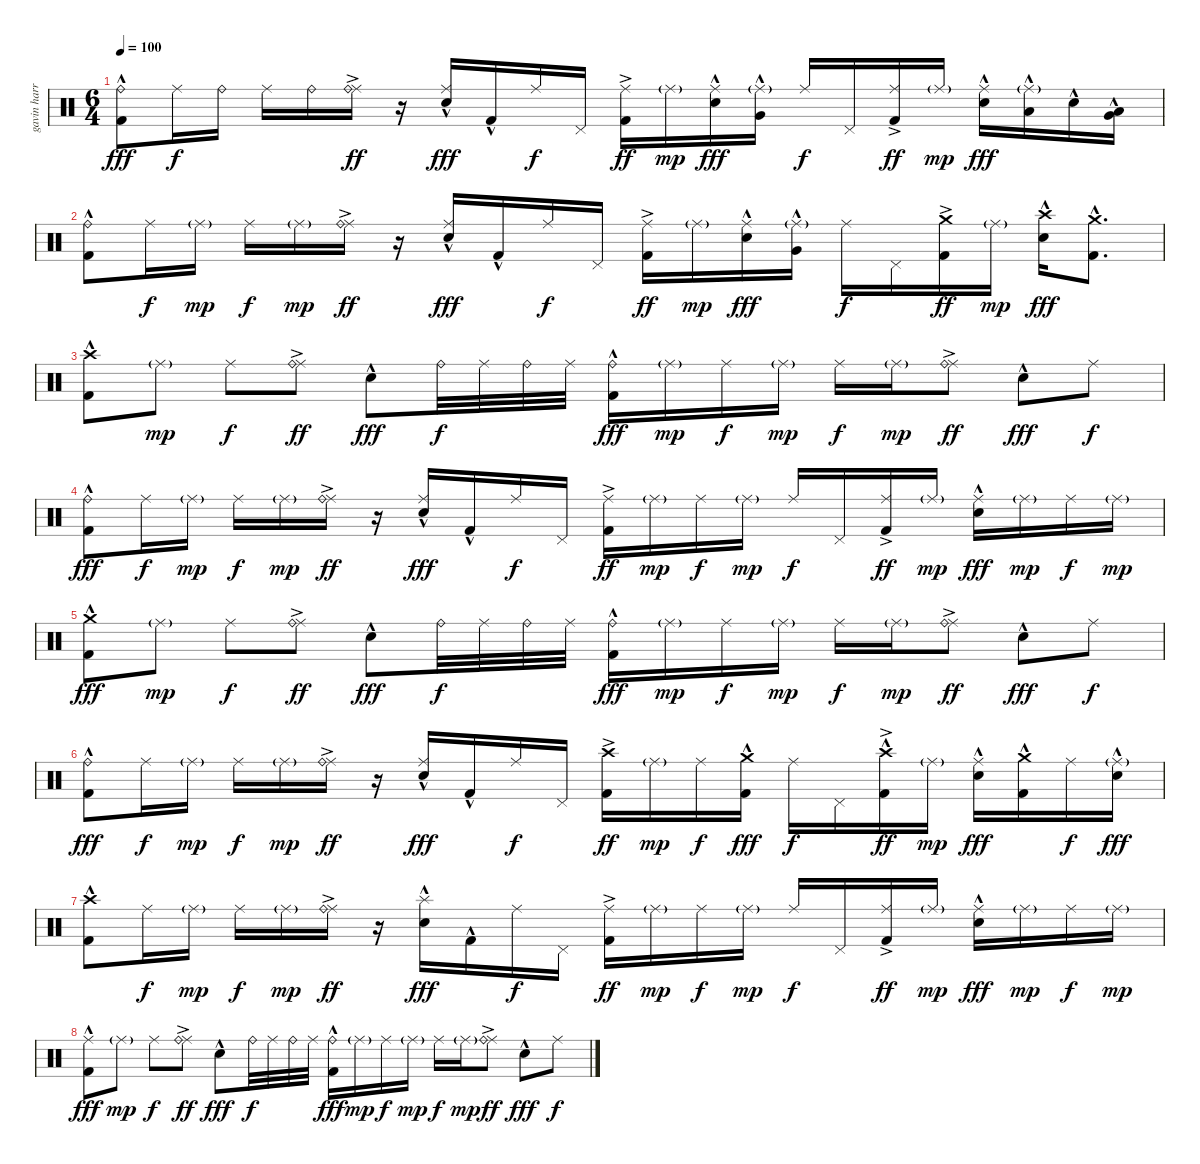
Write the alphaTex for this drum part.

\track ("gavin harrison" "gavin harr") {instrument percussion}
\staff {score}
\articulation defaults
\ts (6 4)
\tempo 100
\clef neutral
\ks c
("Ride (bell)" "Kick (hit) 2"{hac}).8{dy fff} "Ride (middle)".16{dy f} "Ride (bell)".16 "Ride (middle)".16 "Ride (bell)".16 ("Ride (middle)"{ac} "Ride (bell)").16{dy ff} r.16 ("Ride (middle)" "Electric Snare (hit)"{hac}).16{dy fff} "Kick (hit) 2"{hac}.16 "Ride (middle)".16{dy f} "Pedal Hi-Hat (hit)".16 ("Ride (middle)" "Kick (hit) 2"{ac}).16{dy ff} "Ride (middle)"{g}.16{dy mp} ("Ride (middle)" "Electric Snare (hit)"{hac}).16{dy fff} ("Ride (middle)"{g} "Very Low Tom (hit)"{hac}).16 "Ride (middle)".16{dy f} "Pedal Hi-Hat (hit)".16 ("Ride (middle)" "Kick (hit) 2"{ac}).16{dy ff} "Ride (middle)"{g}.16{dy mp} ("Ride (middle)" "Electric Snare (hit)"{hac}).16{dy fff} ("Ride (middle)"{g} "Low Floor Tom (hit)"{hac}).16 "Electric Snare (hit)"{hac}.16 ("Low Floor Tom (hit)" "Very Low Tom (hit)"{hac}).16 |
("Ride (bell)" "Kick (hit) 2"{hac}).8 "Ride (middle)".16{dy f} "Ride (middle)"{g}.16{dy mp} "Ride (middle)".16{dy f} "Ride (middle)"{g}.16{dy mp} ("Ride (middle)"{ac} "Ride (bell)").16{dy ff} r.16 ("Ride (middle)" "Electric Snare (hit)"{hac}).16{dy fff} "Kick (hit) 2"{hac}.16 "Ride (middle)".16{dy f} "Pedal Hi-Hat (hit)".16 ("Ride (middle)" "Kick (hit) 2"{ac}).16{dy ff} "Ride (middle)"{g}.16{dy mp} ("Ride (middle)" "Electric Snare (hit)"{hac}).16{dy fff} ("Ride (middle)"{g} "Very Low Tom (hit)"{hac}).16 "Ride (middle)".16{dy f} "Pedal Hi-Hat (hit)".16 ("Crash medium (hit)" "Kick (hit) 2"{ac}).16{dy ff} "Ride (middle)"{g}.16{dy mp} ("Crash high (hit)" "Electric Snare (hit)"{hac}).16{dy fff} ("Crash medium (hit)" "Kick (hit) 2"{hac}).8{d} |
("Crash high (hit)" "Kick (hit) 2"{hac}).8 "Ride (middle)"{g}.8{dy mp} "Ride (middle)".8{dy f} ("Ride (middle)"{ac} "Ride (bell)").8{dy ff} "Electric Snare (hit)"{hac}.8{dy fff} "Ride (bell)".32{dy f} "Ride (middle)".32 "Ride (bell)".32 "Ride (middle)".32 ("Ride (bell)" "Kick (hit) 2"{hac}).16{dy fff} "Ride (middle)"{g}.16{dy mp} "Ride (middle)".16{dy f} "Ride (middle)"{g}.16{dy mp} "Ride (middle)".16{dy f} "Ride (middle)"{g}.16{dy mp} ("Ride (middle)" "Ride (bell)"{ac}).8{dy ff} "Electric Snare (hit)"{hac}.8{dy fff} "Ride (middle)".8{dy f} |
("Ride (bell)" "Kick (hit) 2"{hac}).8{dy fff} "Ride (middle)".16{dy f} "Ride (middle)"{g}.16{dy mp} "Ride (middle)".16{dy f} "Ride (middle)"{g}.16{dy mp} ("Ride (middle)"{ac} "Ride (bell)").16{dy ff} r.16 ("Ride (middle)" "Electric Snare (hit)"{hac}).16{dy fff} "Kick (hit) 2"{hac}.16 "Ride (middle)".16{dy f} "Pedal Hi-Hat (hit)".16 ("Ride (middle)" "Kick (hit) 2"{ac}).16{dy ff} "Ride (middle)"{g}.16{dy mp} "Ride (middle)".16{dy f} "Ride (middle)"{g}.16{dy mp} "Ride (middle)".16{dy f} "Pedal Hi-Hat (hit)".16 ("Ride (middle)" "Kick (hit) 2"{ac}).16{dy ff} "Ride (middle)"{g}.16{dy mp} ("Ride (middle)" "Electric Snare (hit)"{hac}).16{dy fff} "Ride (middle)"{g}.16{dy mp} "Ride (middle)".16{dy f} "Ride (middle)"{g}.16{dy mp} |
("Crash medium (hit)" "Kick (hit) 2"{hac}).8{dy fff} "Ride (middle)"{g}.8{dy mp} "Ride (middle)".8{dy f} ("Ride (middle)"{ac} "Ride (bell)").8{dy ff} "Electric Snare (hit)"{hac}.8{dy fff} "Ride (bell)".32{dy f} "Ride (middle)".32 "Ride (bell)".32 "Ride (middle)".32 ("Ride (bell)" "Kick (hit) 2"{hac}).16{dy fff} "Ride (middle)"{g}.16{dy mp} "Ride (middle)".16{dy f} "Ride (middle)"{g}.16{dy mp} "Ride (middle)".16{dy f} "Ride (middle)"{g}.16{dy mp} ("Ride (middle)" "Ride (bell)"{ac}).8{dy ff} "Electric Snare (hit)"{hac}.8{dy fff} "Ride (middle)".8{dy f} |
("Ride (bell)" "Kick (hit) 2"{hac}).8{dy fff} "Ride (middle)".16{dy f} "Ride (middle)"{g}.16{dy mp} "Ride (middle)".16{dy f} "Ride (middle)"{g}.16{dy mp} ("Ride (middle)"{ac} "Ride (bell)").16{dy ff} r.16 ("Ride (middle)" "Electric Snare (hit)"{hac}).16{dy fff} "Kick (hit) 2"{hac}.16 "Ride (middle)".16{dy f} "Pedal Hi-Hat (hit)".16 ("Crash high (hit)" "Kick (hit) 2"{ac}).16{dy ff} "Ride (middle)"{g}.16{dy mp} "Ride (middle)".16{dy f} ("Crash medium (hit)" "Kick (hit) 2"{hac}).16{dy fff} "Ride (middle)".16{dy f} "Pedal Hi-Hat (hit)".16 ("Crash high (hit)"{hac} "Kick (hit) 2"{ac}).16{dy ff} "Ride (middle)"{g}.16{dy mp} ("Ride (middle)" "Electric Snare (hit)"{hac}).16{dy fff} ("Crash medium (hit)" "Kick (hit) 2"{hac}).16 "Ride (middle)".16{dy f} ("Ride (middle)"{g} "Electric Snare (hit)"{hac}).16{dy fff} |
("Crash high (hit)" "Kick (hit) 2"{hac}).8 "Ride (middle)".16{dy f} "Ride (middle)"{g}.16{dy mp} "Ride (middle)".16{dy f} "Ride (middle)"{g}.16{dy mp} ("Ride (middle)"{ac} "Ride (bell)").16{dy ff} r.16 ("Splash (hit)" "Electric Snare (hit)"{hac}).16{dy fff} "Kick (hit) 2"{hac}.16 "Ride (middle)".16{dy f} "Pedal Hi-Hat (hit)".16 ("Ride (middle)" "Kick (hit) 2"{ac}).16{dy ff} "Ride (middle)"{g}.16{dy mp} "Ride (middle)".16{dy f} "Ride (middle)"{g}.16{dy mp} "Ride (middle)".16{dy f} "Pedal Hi-Hat (hit)".16 ("Ride (middle)" "Kick (hit) 2"{ac}).16{dy ff} "Ride (middle)"{g}.16{dy mp} ("Ride (middle)" "Electric Snare (hit)"{hac}).16{dy fff} "Ride (middle)"{g}.16{dy mp} "Ride (middle)".16{dy f} "Ride (middle)"{g}.16{dy mp} |
("Ride (middle)" "Kick (hit) 2"{hac}).8{dy fff} "Ride (middle)"{g}.8{dy mp} "Ride (middle)".8{dy f} ("Ride (middle)"{ac} "Ride (bell)").8{dy ff} "Electric Snare (hit)"{hac}.8{dy fff} "Ride (bell)".32{dy f} "Ride (middle)".32 "Ride (bell)".32 "Ride (middle)".32 ("Ride (bell)" "Kick (hit) 2"{hac}).16{dy fff} "Ride (middle)"{g}.16{dy mp} "Ride (middle)".16{dy f} "Ride (middle)"{g}.16{dy mp} "Ride (middle)".16{dy f} "Ride (middle)"{g}.16{dy mp} ("Ride (middle)" "Ride (bell)"{ac}).8{dy ff} "Electric Snare (hit)"{hac}.8{dy fff} "Ride (middle)".8{dy f}
